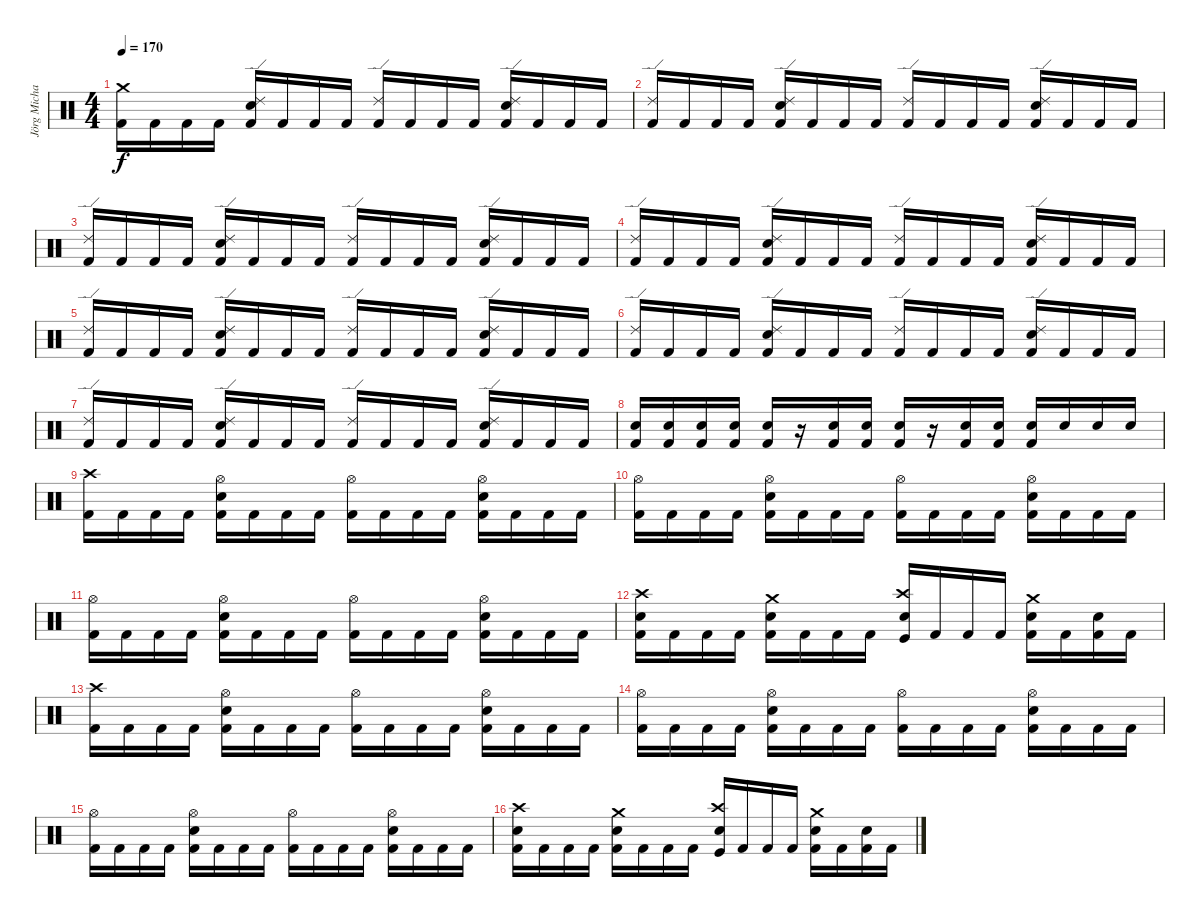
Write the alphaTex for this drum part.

\track ("Jörg Michael" "Jörg Micha") {instrument percussion}
\staff {score}
\articulation defaults
\ts (4 4)
\tempo 170
\clef neutral
\ks c
("Crash medium (hit)" "Kick (hit) 2").16{dy f} "Kick (hit) 2".16 "Kick (hit) 2".16 "Kick (hit) 2".16 ("Ride (edge) 2" "Snare (hit) 2" "Kick (hit) 2").16 "Kick (hit) 2".16 "Kick (hit) 2".16 "Kick (hit) 2".16 ("Ride (edge) 2" "Kick (hit) 2").16 "Kick (hit) 2".16 "Kick (hit) 2".16 "Kick (hit) 2".16 ("Ride (edge) 2" "Snare (hit) 2" "Kick (hit) 2").16 "Kick (hit) 2".16 "Kick (hit) 2".16 "Kick (hit) 2".16 |
("Ride (edge) 2" "Kick (hit) 2").16 "Kick (hit) 2".16 "Kick (hit) 2".16 "Kick (hit) 2".16 ("Ride (edge) 2" "Snare (hit) 2" "Kick (hit) 2").16 "Kick (hit) 2".16 "Kick (hit) 2".16 "Kick (hit) 2".16 ("Ride (edge) 2" "Kick (hit) 2").16 "Kick (hit) 2".16 "Kick (hit) 2".16 "Kick (hit) 2".16 ("Ride (edge) 2" "Snare (hit) 2" "Kick (hit) 2").16 "Kick (hit) 2".16 "Kick (hit) 2".16 "Kick (hit) 2".16 |
("Ride (edge) 2" "Kick (hit) 2").16 "Kick (hit) 2".16 "Kick (hit) 2".16 "Kick (hit) 2".16 ("Ride (edge) 2" "Snare (hit) 2" "Kick (hit) 2").16 "Kick (hit) 2".16 "Kick (hit) 2".16 "Kick (hit) 2".16 ("Ride (edge) 2" "Kick (hit) 2").16 "Kick (hit) 2".16 "Kick (hit) 2".16 "Kick (hit) 2".16 ("Ride (edge) 2" "Snare (hit) 2" "Kick (hit) 2").16 "Kick (hit) 2".16 "Kick (hit) 2".16 "Kick (hit) 2".16 |
("Ride (edge) 2" "Kick (hit) 2").16 "Kick (hit) 2".16 "Kick (hit) 2".16 "Kick (hit) 2".16 ("Ride (edge) 2" "Snare (hit) 2" "Kick (hit) 2").16 "Kick (hit) 2".16 "Kick (hit) 2".16 "Kick (hit) 2".16 ("Ride (edge) 2" "Kick (hit) 2").16 "Kick (hit) 2".16 "Kick (hit) 2".16 "Kick (hit) 2".16 ("Ride (edge) 2" "Snare (hit) 2" "Kick (hit) 2").16 "Kick (hit) 2".16 "Kick (hit) 2".16 "Kick (hit) 2".16 |
("Ride (edge) 2" "Kick (hit) 2").16 "Kick (hit) 2".16 "Kick (hit) 2".16 "Kick (hit) 2".16 ("Ride (edge) 2" "Snare (hit) 2" "Kick (hit) 2").16 "Kick (hit) 2".16 "Kick (hit) 2".16 "Kick (hit) 2".16 ("Ride (edge) 2" "Kick (hit) 2").16 "Kick (hit) 2".16 "Kick (hit) 2".16 "Kick (hit) 2".16 ("Ride (edge) 2" "Snare (hit) 2" "Kick (hit) 2").16 "Kick (hit) 2".16 "Kick (hit) 2".16 "Kick (hit) 2".16 |
("Ride (edge) 2" "Kick (hit) 2").16 "Kick (hit) 2".16 "Kick (hit) 2".16 "Kick (hit) 2".16 ("Ride (edge) 2" "Snare (hit) 2" "Kick (hit) 2").16 "Kick (hit) 2".16 "Kick (hit) 2".16 "Kick (hit) 2".16 ("Ride (edge) 2" "Kick (hit) 2").16 "Kick (hit) 2".16 "Kick (hit) 2".16 "Kick (hit) 2".16 ("Ride (edge) 2" "Snare (hit) 2" "Kick (hit) 2").16 "Kick (hit) 2".16 "Kick (hit) 2".16 "Kick (hit) 2".16 |
("Ride (edge) 2" "Kick (hit) 2").16 "Kick (hit) 2".16 "Kick (hit) 2".16 "Kick (hit) 2".16 ("Ride (edge) 2" "Snare (hit) 2" "Kick (hit) 2").16 "Kick (hit) 2".16 "Kick (hit) 2".16 "Kick (hit) 2".16 ("Ride (edge) 2" "Kick (hit) 2").16 "Kick (hit) 2".16 "Kick (hit) 2".16 "Kick (hit) 2".16 ("Ride (edge) 2" "Snare (hit) 2" "Kick (hit) 2").16 "Kick (hit) 2".16 "Kick (hit) 2".16 "Kick (hit) 2".16 |
("Snare (hit) 2" "Kick (hit) 2").16 ("Snare (hit) 2" "Kick (hit) 2").16 ("Snare (hit) 2" "Kick (hit) 2").16 ("Snare (hit) 2" "Kick (hit) 2").16 ("Snare (hit) 2" "Kick (hit) 2").16 r.16 ("Snare (hit) 2" "Kick (hit) 2").16 ("Snare (hit) 2" "Kick (hit) 2").16 ("Snare (hit) 2" "Kick (hit) 2").16 r.16 ("Snare (hit) 2" "Kick (hit) 2").16 ("Snare (hit) 2" "Kick (hit) 2").16 ("Snare (hit) 2" "Kick (hit) 2").16 "Snare (hit) 2".16 "Snare (hit) 2".16 "Snare (hit) 2".16 |
("Crash high (hit)" "Kick (hit) 2").16 "Kick (hit) 2".16 "Kick (hit) 2".16 "Kick (hit) 2".16 ("Hi-Hat (open)" "Snare (hit) 2" "Kick (hit) 2").16 "Kick (hit) 2".16 "Kick (hit) 2".16 "Kick (hit) 2".16 ("Hi-Hat (open)" "Kick (hit) 2").16 "Kick (hit) 2".16 "Kick (hit) 2".16 "Kick (hit) 2".16 ("Hi-Hat (open)" "Snare (hit) 2" "Kick (hit) 2").16 "Kick (hit) 2".16 "Kick (hit) 2".16 "Kick (hit) 2".16 |
("Hi-Hat (open)" "Kick (hit) 2").16 "Kick (hit) 2".16 "Kick (hit) 2".16 "Kick (hit) 2".16 ("Hi-Hat (open)" "Snare (hit) 2" "Kick (hit) 2").16 "Kick (hit) 2".16 "Kick (hit) 2".16 "Kick (hit) 2".16 ("Hi-Hat (open)" "Kick (hit) 2").16 "Kick (hit) 2".16 "Kick (hit) 2".16 "Kick (hit) 2".16 ("Hi-Hat (open)" "Snare (hit) 2" "Kick (hit) 2").16 "Kick (hit) 2".16 "Kick (hit) 2".16 "Kick (hit) 2".16 |
("Hi-Hat (open)" "Kick (hit) 2").16 "Kick (hit) 2".16 "Kick (hit) 2".16 "Kick (hit) 2".16 ("Hi-Hat (open)" "Snare (hit) 2" "Kick (hit) 2").16 "Kick (hit) 2".16 "Kick (hit) 2".16 "Kick (hit) 2".16 ("Hi-Hat (open)" "Kick (hit) 2").16 "Kick (hit) 2".16 "Kick (hit) 2".16 "Kick (hit) 2".16 ("Hi-Hat (open)" "Snare (hit) 2" "Kick (hit) 2").16 "Kick (hit) 2".16 "Kick (hit) 2".16 "Kick (hit) 2".16 |
("Crash high (hit)" "Snare (hit) 2" "Kick (hit) 2").16 "Kick (hit) 2".16 "Kick (hit) 2".16 "Kick (hit) 2".16 ("Crash medium (hit)" "Snare (hit) 2" "Kick (hit) 2").16 "Kick (hit) 2".16 "Kick (hit) 2".16 "Kick (hit) 2".16 ("Crash high (hit)" "Snare (hit) 2" "Kick (hit)").16 "Kick (hit) 2".16 "Kick (hit) 2".16 "Kick (hit) 2".16 ("Crash medium (hit)" "Snare (hit) 2" "Kick (hit) 2").16 "Kick (hit) 2".16 ("Snare (hit) 2" "Kick (hit) 2").16 "Kick (hit) 2".16 |
("Crash high (hit)" "Kick (hit) 2").16 "Kick (hit) 2".16 "Kick (hit) 2".16 "Kick (hit) 2".16 ("Hi-Hat (open)" "Snare (hit) 2" "Kick (hit) 2").16 "Kick (hit) 2".16 "Kick (hit) 2".16 "Kick (hit) 2".16 ("Hi-Hat (open)" "Kick (hit) 2").16 "Kick (hit) 2".16 "Kick (hit) 2".16 "Kick (hit) 2".16 ("Hi-Hat (open)" "Snare (hit) 2" "Kick (hit) 2").16 "Kick (hit) 2".16 "Kick (hit) 2".16 "Kick (hit) 2".16 |
("Hi-Hat (open)" "Kick (hit) 2").16 "Kick (hit) 2".16 "Kick (hit) 2".16 "Kick (hit) 2".16 ("Hi-Hat (open)" "Snare (hit) 2" "Kick (hit) 2").16 "Kick (hit) 2".16 "Kick (hit) 2".16 "Kick (hit) 2".16 ("Hi-Hat (open)" "Kick (hit) 2").16 "Kick (hit) 2".16 "Kick (hit) 2".16 "Kick (hit) 2".16 ("Hi-Hat (open)" "Snare (hit) 2" "Kick (hit) 2").16 "Kick (hit) 2".16 "Kick (hit) 2".16 "Kick (hit) 2".16 |
("Hi-Hat (open)" "Kick (hit) 2").16 "Kick (hit) 2".16 "Kick (hit) 2".16 "Kick (hit) 2".16 ("Hi-Hat (open)" "Snare (hit) 2" "Kick (hit) 2").16 "Kick (hit) 2".16 "Kick (hit) 2".16 "Kick (hit) 2".16 ("Hi-Hat (open)" "Kick (hit) 2").16 "Kick (hit) 2".16 "Kick (hit) 2".16 "Kick (hit) 2".16 ("Hi-Hat (open)" "Snare (hit) 2" "Kick (hit) 2").16 "Kick (hit) 2".16 "Kick (hit) 2".16 "Kick (hit) 2".16 |
("Crash high (hit)" "Snare (hit) 2" "Kick (hit) 2").16 "Kick (hit) 2".16 "Kick (hit) 2".16 "Kick (hit) 2".16 ("Crash medium (hit)" "Snare (hit) 2" "Kick (hit) 2").16 "Kick (hit) 2".16 "Kick (hit) 2".16 "Kick (hit) 2".16 ("Crash high (hit)" "Snare (hit) 2" "Kick (hit)").16 "Kick (hit) 2".16 "Kick (hit) 2".16 "Kick (hit) 2".16 ("Crash medium (hit)" "Snare (hit) 2" "Kick (hit) 2").16 "Kick (hit) 2".16 ("Snare (hit) 2" "Kick (hit) 2").16 "Kick (hit) 2".16
